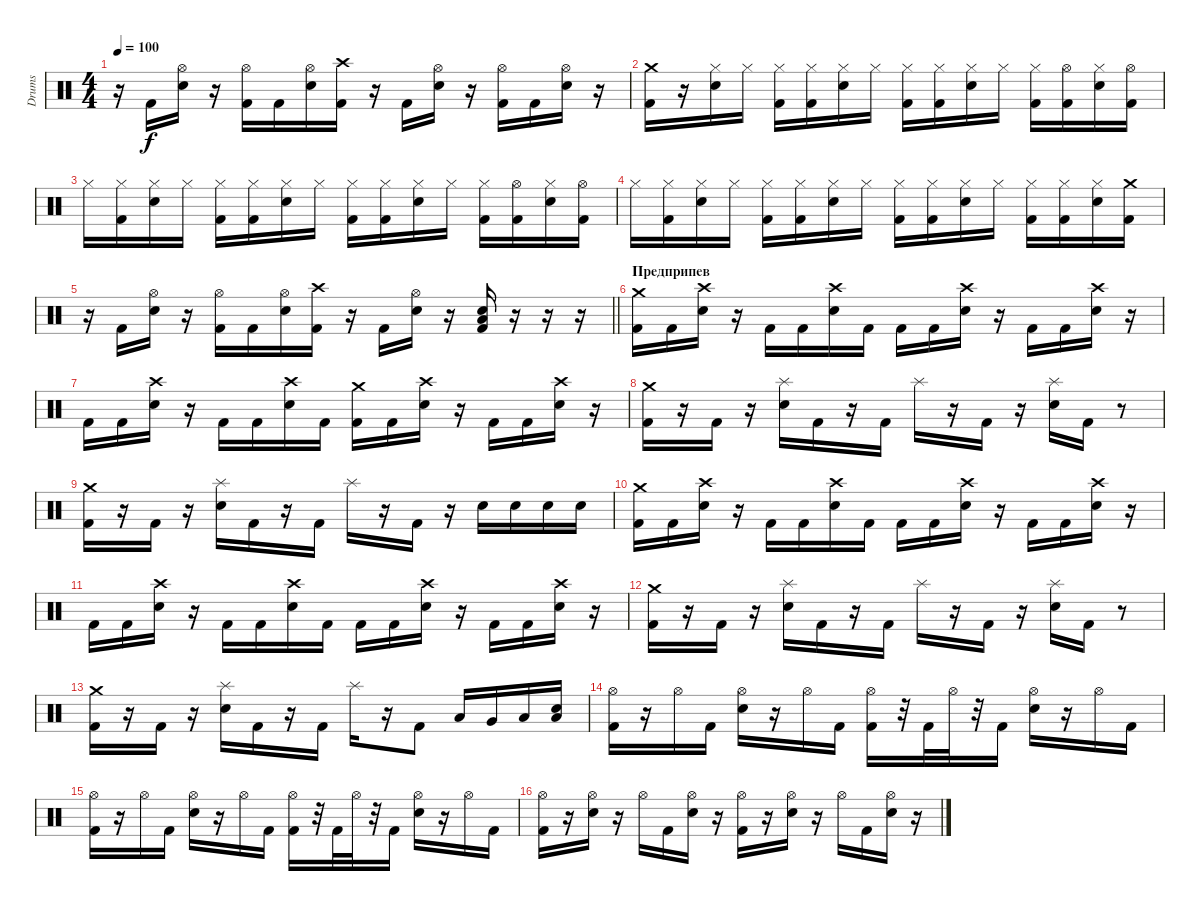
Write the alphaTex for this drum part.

\track ("Drums" "Drums") {instrument percussion}
\staff {score}
\articulation defaults
\ts (4 4)
\tempo 100
\clef neutral
\ks c
r.16{dy f} "Kick (hit) 2".16 ("Hi-Hat (open)" "Electric Snare (hit)").16 r.16 ("Hi-Hat (open)" "Kick (hit) 2").16 "Kick (hit) 2".16 ("Hi-Hat (open)" "Electric Snare (hit)").16 ("Crash high (hit)" "Kick (hit) 2").16 r.16 "Kick (hit) 2".16 ("Hi-Hat (open)" "Electric Snare (hit)").16 r.16 ("Hi-Hat (open)" "Kick (hit) 2").16 "Kick (hit) 2".16 ("Hi-Hat (open)" "Electric Snare (hit)").16 r.16 |
("Crash medium (hit)" "Kick (hit) 2").16 r.16 ("Hi-Hat (closed)" "Electric Snare (hit)").16 "Hi-Hat (closed)".16 ("Hi-Hat (closed)" "Kick (hit) 2").16 ("Hi-Hat (closed)" "Kick (hit) 2").16 ("Hi-Hat (closed)" "Electric Snare (hit)").16 "Hi-Hat (closed)".16 ("Hi-Hat (closed)" "Kick (hit) 2").16 ("Hi-Hat (closed)" "Kick (hit) 2").16 ("Hi-Hat (closed)" "Electric Snare (hit)").16 "Hi-Hat (closed)".16 ("Hi-Hat (closed)" "Kick (hit) 2").16 ("Hi-Hat (open)" "Kick (hit) 2").16 ("Hi-Hat (closed)" "Electric Snare (hit)").16 ("Hi-Hat (open)" "Kick (hit) 2").16 |
"Hi-Hat (closed)".16 ("Hi-Hat (closed)" "Kick (hit) 2").16 ("Hi-Hat (closed)" "Electric Snare (hit)").16 "Hi-Hat (closed)".16 ("Hi-Hat (closed)" "Kick (hit) 2").16 ("Hi-Hat (closed)" "Kick (hit) 2").16 ("Hi-Hat (closed)" "Electric Snare (hit)").16 "Hi-Hat (closed)".16 ("Hi-Hat (closed)" "Kick (hit) 2").16 ("Hi-Hat (closed)" "Kick (hit) 2").16 ("Hi-Hat (closed)" "Electric Snare (hit)").16 "Hi-Hat (closed)".16 ("Hi-Hat (closed)" "Kick (hit) 2").16 ("Hi-Hat (open)" "Kick (hit) 2").16 ("Hi-Hat (closed)" "Electric Snare (hit)").16 ("Hi-Hat (open)" "Kick (hit) 2").16 |
"Hi-Hat (closed)".16 ("Hi-Hat (closed)" "Kick (hit) 2").16 ("Hi-Hat (closed)" "Electric Snare (hit)").16 "Hi-Hat (closed)".16 ("Hi-Hat (closed)" "Kick (hit) 2").16 ("Hi-Hat (closed)" "Kick (hit) 2").16 ("Hi-Hat (closed)" "Electric Snare (hit)").16 "Hi-Hat (closed)".16 ("Hi-Hat (closed)" "Kick (hit) 2").16 ("Hi-Hat (closed)" "Kick (hit) 2").16 ("Hi-Hat (closed)" "Electric Snare (hit)").16 "Hi-Hat (closed)".16 ("Hi-Hat (closed)" "Kick (hit) 2").16 ("Hi-Hat (closed)" "Kick (hit) 2").16 ("Hi-Hat (closed)" "Electric Snare (hit)").16 ("Crash medium (hit)" "Kick (hit) 2").16 |
\barLineRight lightlight
r.16 "Kick (hit) 2".16 ("Hi-Hat (open)" "Electric Snare (hit)").16 r.16 ("Hi-Hat (open)" "Kick (hit) 2").16 "Kick (hit) 2".16 ("Hi-Hat (open)" "Electric Snare (hit)").16 ("Crash high (hit)" "Kick (hit) 2").16 r.16 "Kick (hit) 2".16 ("Hi-Hat (open)" "Electric Snare (hit)").16 r.16 ("Electric Snare (hit)" "Kick (hit) 2" "Low Floor Tom (hit)").16 r.16 r.16 r.16 |
\section ("" "Предприпев")
("Crash medium (hit)" "Kick (hit) 2").16 "Kick (hit) 2".16 ("Crash high (hit)" "Electric Snare (hit)").16 r.16 "Kick (hit) 2".16 "Kick (hit) 2".16 ("Crash high (hit)" "Electric Snare (hit)").16 "Kick (hit) 2".16 "Kick (hit) 2".16 "Kick (hit) 2".16 ("Crash high (hit)" "Electric Snare (hit)").16 r.16 "Kick (hit) 2".16 "Kick (hit) 2".16 ("Crash high (hit)" "Electric Snare (hit)").16 r.16 |
"Kick (hit) 2".16 "Kick (hit) 2".16 ("Crash high (hit)" "Electric Snare (hit)").16 r.16 "Kick (hit) 2".16 "Kick (hit) 2".16 ("Crash high (hit)" "Electric Snare (hit)").16 "Kick (hit) 2".16 ("Crash medium (hit)" "Kick (hit) 2").16 "Kick (hit) 2".16 ("Crash high (hit)" "Electric Snare (hit)").16 r.16 "Kick (hit) 2".16 "Kick (hit) 2".16 ("Crash high (hit)" "Electric Snare (hit)").16 r.16 |
("Crash medium (hit)" "Kick (hit) 2").16 r.16 "Kick (hit) 2".16 r.16 ("Splash (hit)" "Electric Snare (hit)").16 "Kick (hit) 2".16 r.16 "Kick (hit) 2".16 "Splash (hit)".16 r.16 "Kick (hit) 2".16 r.16 ("Splash (hit)" "Electric Snare (hit)").16 "Kick (hit) 2".16 r.8 |
("Crash medium (hit)" "Kick (hit) 2").16 r.16 "Kick (hit) 2".16 r.16 ("Splash (hit)" "Electric Snare (hit)").16 "Kick (hit) 2".16 r.16 "Kick (hit) 2".16 "Splash (hit)".16 r.16 "Kick (hit) 2".16 r.16 "Electric Snare (hit)".16 "Electric Snare (hit)".16 "Electric Snare (hit)".16 "Electric Snare (hit)".16 |
("Crash medium (hit)" "Kick (hit) 2").16 "Kick (hit) 2".16 ("Crash high (hit)" "Electric Snare (hit)").16 r.16 "Kick (hit) 2".16 "Kick (hit) 2".16 ("Crash high (hit)" "Electric Snare (hit)").16 "Kick (hit) 2".16 "Kick (hit) 2".16 "Kick (hit) 2".16 ("Crash high (hit)" "Electric Snare (hit)").16 r.16 "Kick (hit) 2".16 "Kick (hit) 2".16 ("Crash high (hit)" "Electric Snare (hit)").16 r.16 |
"Kick (hit) 2".16 "Kick (hit) 2".16 ("Crash high (hit)" "Electric Snare (hit)").16 r.16 "Kick (hit) 2".16 "Kick (hit) 2".16 ("Crash high (hit)" "Electric Snare (hit)").16 "Kick (hit) 2".16 "Kick (hit) 2".16 "Kick (hit) 2".16 ("Crash high (hit)" "Electric Snare (hit)").16 r.16 "Kick (hit) 2".16 "Kick (hit) 2".16 ("Crash high (hit)" "Electric Snare (hit)").16 r.16 |
("Crash medium (hit)" "Kick (hit) 2").16 r.16 "Kick (hit) 2".16 r.16 ("Splash (hit)" "Electric Snare (hit)").16 "Kick (hit) 2".16 r.16 "Kick (hit) 2".16 "Splash (hit)".16 r.16 "Kick (hit) 2".16 r.16 ("Splash (hit)" "Electric Snare (hit)").16 "Kick (hit) 2".16 r.8 |
("Crash medium (hit)" "Kick (hit) 2").16 r.16 "Kick (hit) 2".16 r.16 ("Splash (hit)" "Electric Snare (hit)").16 "Kick (hit) 2".16 r.16 "Kick (hit) 2".16 "Splash (hit)".16 r.16 "Kick (hit) 2".8 "Low Tom (hit)".16 "Very Low Tom (hit)".16 "Low Floor Tom (hit)".16 ("Low Floor Tom (hit)" "Electric Snare (hit)").16 |
("Hi-Hat (open)" "Kick (hit) 2").16 r.16 "Hi-Hat (open)".16 "Kick (hit) 2".16 ("Hi-Hat (open)" "Electric Snare (hit)").16 r.16 "Hi-Hat (open)".16 "Kick (hit) 2".16 ("Hi-Hat (open)" "Kick (hit) 2").16 r.32 "Kick (hit) 2".32 "Hi-Hat (open)".32 r.32 "Kick (hit) 2".16 ("Hi-Hat (open)" "Electric Snare (hit)").16 r.16 "Hi-Hat (open)".16 "Kick (hit) 2".16 |
("Hi-Hat (open)" "Kick (hit) 2").16 r.16 "Hi-Hat (open)".16 "Kick (hit) 2".16 ("Hi-Hat (open)" "Electric Snare (hit)").16 r.16 "Hi-Hat (open)".16 "Kick (hit) 2".16 ("Hi-Hat (open)" "Kick (hit) 2").16 r.32 "Kick (hit) 2".32 "Hi-Hat (open)".32 r.32 "Kick (hit) 2".16 ("Hi-Hat (open)" "Electric Snare (hit)").16 r.16 "Hi-Hat (open)".16 "Kick (hit) 2".16 |
("Hi-Hat (open)" "Kick (hit) 2").16 r.16 ("Hi-Hat (open)" "Electric Snare (hit)").16 r.16 "Hi-Hat (open)".16 "Kick (hit) 2".16 ("Hi-Hat (open)" "Electric Snare (hit)").16 r.16 ("Hi-Hat (open)" "Kick (hit) 2").16 r.16 ("Hi-Hat (open)" "Electric Snare (hit)").16 r.16 "Hi-Hat (open)".16 "Kick (hit) 2".16 ("Hi-Hat (open)" "Electric Snare (hit)").16 r.16
